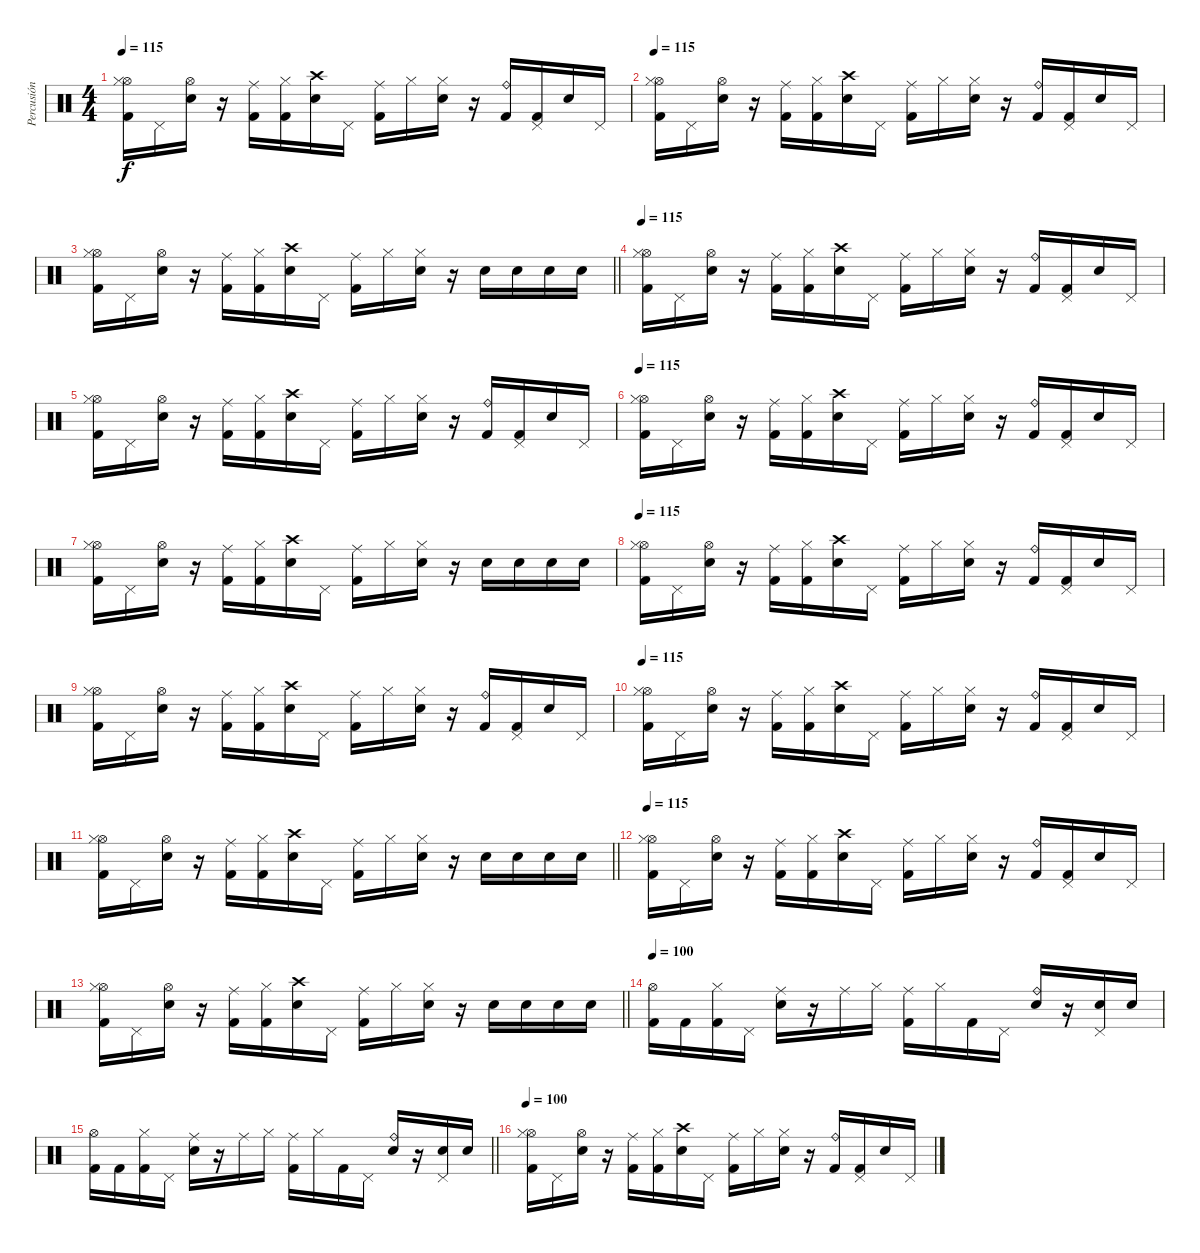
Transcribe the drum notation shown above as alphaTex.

\track ("Percusión" "Percusión") {instrument percussion}
\staff {score}
\articulation defaults
\ts (4 4)
\tempo 115
\clef neutral
\ks c
("Kick (hit) 2" "Hi-Hat (open)" "Hi-Hat (closed)").16{dy f} "Pedal Hi-Hat (hit)".16 ("Hi-Hat (open)" "Electric Snare (hit)").16 r.16 ("Kick (hit) 2" "Ride (middle)").16 ("Kick (hit) 2" "Hi-Hat (closed)").16 ("Crash high (hit)" "Electric Snare (hit)").16 "Pedal Hi-Hat (hit)".16 ("Kick (hit) 2" "Ride (middle)").16 "Hi-Hat (closed)".16 ("Electric Snare (hit)" "Hi-Hat (closed)").16 r.16 ("Kick (hit) 2" "Ride (bell)").16 ("Kick (hit) 2" "Pedal Hi-Hat (hit)").16 "Electric Snare (hit)".16 "Pedal Hi-Hat (hit)".16 |
\tempo 115
("Kick (hit) 2" "Hi-Hat (open)" "Hi-Hat (closed)").16 "Pedal Hi-Hat (hit)".16 ("Hi-Hat (open)" "Electric Snare (hit)").16 r.16 ("Kick (hit) 2" "Ride (middle)").16 ("Kick (hit) 2" "Hi-Hat (closed)").16 ("Crash high (hit)" "Electric Snare (hit)").16 "Pedal Hi-Hat (hit)".16 ("Kick (hit) 2" "Ride (middle)").16 "Hi-Hat (closed)".16 ("Electric Snare (hit)" "Hi-Hat (closed)").16 r.16 ("Kick (hit) 2" "Ride (bell)").16 ("Kick (hit) 2" "Pedal Hi-Hat (hit)").16 "Electric Snare (hit)".16 "Pedal Hi-Hat (hit)".16 |
\barLineRight lightlight
("Kick (hit) 2" "Hi-Hat (open)" "Hi-Hat (closed)").16 "Pedal Hi-Hat (hit)".16 ("Hi-Hat (open)" "Electric Snare (hit)").16 r.16 ("Kick (hit) 2" "Ride (middle)").16 ("Kick (hit) 2" "Hi-Hat (closed)").16 ("Crash high (hit)" "Electric Snare (hit)").16 "Pedal Hi-Hat (hit)".16 ("Kick (hit) 2" "Ride (middle)").16 "Hi-Hat (closed)".16 ("Electric Snare (hit)" "Hi-Hat (closed)").16 r.16 "Electric Snare (hit)".16 "Electric Snare (hit)".16 "Electric Snare (hit)".16 "Electric Snare (hit)".16 |
\section ("" "")
\tempo 115
("Kick (hit) 2" "Hi-Hat (open)" "Hi-Hat (closed)").16 "Pedal Hi-Hat (hit)".16 ("Hi-Hat (open)" "Electric Snare (hit)").16 r.16 ("Kick (hit) 2" "Ride (middle)").16 ("Kick (hit) 2" "Hi-Hat (closed)").16 ("Crash high (hit)" "Electric Snare (hit)").16 "Pedal Hi-Hat (hit)".16 ("Kick (hit) 2" "Ride (middle)").16 "Hi-Hat (closed)".16 ("Electric Snare (hit)" "Hi-Hat (closed)").16 r.16 ("Kick (hit) 2" "Ride (bell)").16 ("Kick (hit) 2" "Pedal Hi-Hat (hit)").16 "Electric Snare (hit)".16 "Pedal Hi-Hat (hit)".16 |
("Kick (hit) 2" "Hi-Hat (open)" "Hi-Hat (closed)").16 "Pedal Hi-Hat (hit)".16 ("Hi-Hat (open)" "Electric Snare (hit)").16 r.16 ("Kick (hit) 2" "Ride (middle)").16 ("Kick (hit) 2" "Hi-Hat (closed)").16 ("Crash high (hit)" "Electric Snare (hit)").16 "Pedal Hi-Hat (hit)".16 ("Kick (hit) 2" "Ride (middle)").16 "Hi-Hat (closed)".16 ("Electric Snare (hit)" "Hi-Hat (closed)").16 r.16 ("Kick (hit) 2" "Ride (bell)").16 ("Kick (hit) 2" "Pedal Hi-Hat (hit)").16 "Electric Snare (hit)".16 "Pedal Hi-Hat (hit)".16 |
\tempo 115
("Kick (hit) 2" "Hi-Hat (open)" "Hi-Hat (closed)").16 "Pedal Hi-Hat (hit)".16 ("Hi-Hat (open)" "Electric Snare (hit)").16 r.16 ("Kick (hit) 2" "Ride (middle)").16 ("Kick (hit) 2" "Hi-Hat (closed)").16 ("Crash high (hit)" "Electric Snare (hit)").16 "Pedal Hi-Hat (hit)".16 ("Kick (hit) 2" "Ride (middle)").16 "Hi-Hat (closed)".16 ("Electric Snare (hit)" "Hi-Hat (closed)").16 r.16 ("Kick (hit) 2" "Ride (bell)").16 ("Kick (hit) 2" "Pedal Hi-Hat (hit)").16 "Electric Snare (hit)".16 "Pedal Hi-Hat (hit)".16 |
("Kick (hit) 2" "Hi-Hat (open)" "Hi-Hat (closed)").16 "Pedal Hi-Hat (hit)".16 ("Hi-Hat (open)" "Electric Snare (hit)").16 r.16 ("Kick (hit) 2" "Ride (middle)").16 ("Kick (hit) 2" "Hi-Hat (closed)").16 ("Crash high (hit)" "Electric Snare (hit)").16 "Pedal Hi-Hat (hit)".16 ("Kick (hit) 2" "Ride (middle)").16 "Hi-Hat (closed)".16 ("Electric Snare (hit)" "Hi-Hat (closed)").16 r.16 "Electric Snare (hit)".16 "Electric Snare (hit)".16 "Electric Snare (hit)".16 "Electric Snare (hit)".16 |
\tempo 115
("Kick (hit) 2" "Hi-Hat (open)" "Hi-Hat (closed)").16 "Pedal Hi-Hat (hit)".16 ("Hi-Hat (open)" "Electric Snare (hit)").16 r.16 ("Kick (hit) 2" "Ride (middle)").16 ("Kick (hit) 2" "Hi-Hat (closed)").16 ("Crash high (hit)" "Electric Snare (hit)").16 "Pedal Hi-Hat (hit)".16 ("Kick (hit) 2" "Ride (middle)").16 "Hi-Hat (closed)".16 ("Electric Snare (hit)" "Hi-Hat (closed)").16 r.16 ("Kick (hit) 2" "Ride (bell)").16 ("Kick (hit) 2" "Pedal Hi-Hat (hit)").16 "Electric Snare (hit)".16 "Pedal Hi-Hat (hit)".16 |
("Kick (hit) 2" "Hi-Hat (open)" "Hi-Hat (closed)").16 "Pedal Hi-Hat (hit)".16 ("Hi-Hat (open)" "Electric Snare (hit)").16 r.16 ("Kick (hit) 2" "Ride (middle)").16 ("Kick (hit) 2" "Hi-Hat (closed)").16 ("Crash high (hit)" "Electric Snare (hit)").16 "Pedal Hi-Hat (hit)".16 ("Kick (hit) 2" "Ride (middle)").16 "Hi-Hat (closed)".16 ("Electric Snare (hit)" "Hi-Hat (closed)").16 r.16 ("Kick (hit) 2" "Ride (bell)").16 ("Kick (hit) 2" "Pedal Hi-Hat (hit)").16 "Electric Snare (hit)".16 "Pedal Hi-Hat (hit)".16 |
\tempo 115
("Kick (hit) 2" "Hi-Hat (open)" "Hi-Hat (closed)").16 "Pedal Hi-Hat (hit)".16 ("Hi-Hat (open)" "Electric Snare (hit)").16 r.16 ("Kick (hit) 2" "Ride (middle)").16 ("Kick (hit) 2" "Hi-Hat (closed)").16 ("Crash high (hit)" "Electric Snare (hit)").16 "Pedal Hi-Hat (hit)".16 ("Kick (hit) 2" "Ride (middle)").16 "Hi-Hat (closed)".16 ("Electric Snare (hit)" "Hi-Hat (closed)").16 r.16 ("Kick (hit) 2" "Ride (bell)").16 ("Kick (hit) 2" "Pedal Hi-Hat (hit)").16 "Electric Snare (hit)".16 "Pedal Hi-Hat (hit)".16 |
\barLineRight lightlight
("Kick (hit) 2" "Hi-Hat (open)" "Hi-Hat (closed)").16 "Pedal Hi-Hat (hit)".16 ("Hi-Hat (open)" "Electric Snare (hit)").16 r.16 ("Kick (hit) 2" "Ride (middle)").16 ("Kick (hit) 2" "Hi-Hat (closed)").16 ("Crash high (hit)" "Electric Snare (hit)").16 "Pedal Hi-Hat (hit)".16 ("Kick (hit) 2" "Ride (middle)").16 "Hi-Hat (closed)".16 ("Electric Snare (hit)" "Hi-Hat (closed)").16 r.16 "Electric Snare (hit)".16 "Electric Snare (hit)".16 "Electric Snare (hit)".16 "Electric Snare (hit)".16 |
\section ("" "")
\tempo 115
("Kick (hit) 2" "Hi-Hat (open)" "Hi-Hat (closed)").16 "Pedal Hi-Hat (hit)".16 ("Hi-Hat (open)" "Electric Snare (hit)").16 r.16 ("Kick (hit) 2" "Ride (middle)").16 ("Kick (hit) 2" "Hi-Hat (closed)").16 ("Crash high (hit)" "Electric Snare (hit)").16 "Pedal Hi-Hat (hit)".16 ("Kick (hit) 2" "Ride (middle)").16 "Hi-Hat (closed)".16 ("Electric Snare (hit)" "Hi-Hat (closed)").16 r.16 ("Kick (hit) 2" "Ride (bell)").16 ("Kick (hit) 2" "Pedal Hi-Hat (hit)").16 "Electric Snare (hit)".16 "Pedal Hi-Hat (hit)".16 |
\barLineRight lightlight
("Kick (hit) 2" "Hi-Hat (open)" "Hi-Hat (closed)").16 "Pedal Hi-Hat (hit)".16 ("Hi-Hat (open)" "Electric Snare (hit)").16 r.16 ("Kick (hit) 2" "Ride (middle)").16 ("Kick (hit) 2" "Hi-Hat (closed)").16 ("Crash high (hit)" "Electric Snare (hit)").16 "Pedal Hi-Hat (hit)".16 ("Kick (hit) 2" "Ride (middle)").16 "Hi-Hat (closed)".16 ("Electric Snare (hit)" "Hi-Hat (closed)").16 r.16 "Electric Snare (hit)".16 "Electric Snare (hit)".16 "Electric Snare (hit)".16 "Electric Snare (hit)".16 |
\section ("" "")
\tempo 100
("Kick (hit) 2" "Hi-Hat (open)").16 "Kick (hit) 2".16 ("Kick (hit) 2" "Hi-Hat (closed)").16 "Pedal Hi-Hat (hit)".16 ("Electric Snare (hit)" "Ride (middle)").16 r.16 "Ride (middle)".16 "Hi-Hat (closed)".16 ("Kick (hit) 2" "Ride (middle)").16 "Hi-Hat (closed)".16 "Kick (hit) 2".16 "Pedal Hi-Hat (hit)".16 ("Electric Snare (hit)" "Ride (bell)").16 r.16 ("Snare (hit) 2" "Pedal Hi-Hat (hit)").16 "Electric Snare (hit)".16 |
\barLineRight lightlight
("Kick (hit) 2" "Hi-Hat (open)").16 "Kick (hit) 2".16 ("Kick (hit) 2" "Hi-Hat (closed)").16 "Pedal Hi-Hat (hit)".16 ("Electric Snare (hit)" "Ride (middle)").16 r.16 "Ride (middle)".16 "Hi-Hat (closed)".16 ("Kick (hit) 2" "Ride (middle)").16 "Hi-Hat (closed)".16 "Kick (hit) 2".16 "Pedal Hi-Hat (hit)".16 ("Electric Snare (hit)" "Ride (bell)").16 r.16 ("Snare (hit) 2" "Pedal Hi-Hat (hit)").16 "Electric Snare (hit)".16 |
\tempo 100
("Kick (hit) 2" "Hi-Hat (open)" "Hi-Hat (closed)").16 "Pedal Hi-Hat (hit)".16 ("Hi-Hat (open)" "Electric Snare (hit)").16 r.16 ("Kick (hit) 2" "Ride (middle)").16 ("Kick (hit) 2" "Hi-Hat (closed)").16 ("Crash high (hit)" "Electric Snare (hit)").16 "Pedal Hi-Hat (hit)".16 ("Kick (hit) 2" "Ride (middle)").16 "Hi-Hat (closed)".16 ("Electric Snare (hit)" "Hi-Hat (closed)").16 r.16 ("Kick (hit) 2" "Ride (bell)").16 ("Kick (hit) 2" "Pedal Hi-Hat (hit)").16 "Electric Snare (hit)".16 "Pedal Hi-Hat (hit)".16
